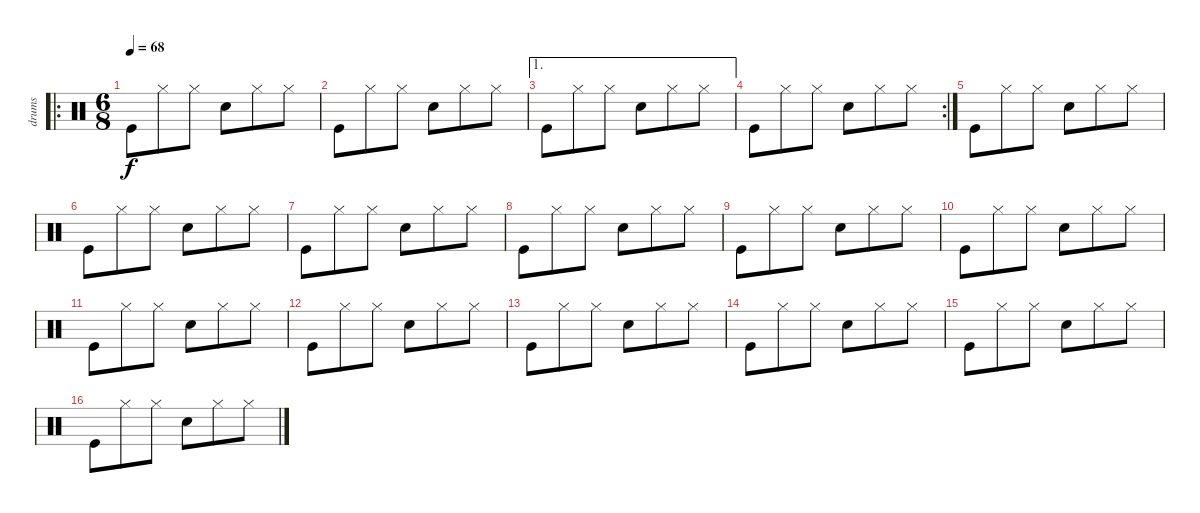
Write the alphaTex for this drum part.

\track ("drums" "drums") {instrument percussion}
\staff {score}
\articulation defaults
\ro
\ts (6 8)
\tempo 68
\clef neutral
\ks c "Kick (hit)".8{dy f} "Hi-Hat (closed)".8 "Hi-Hat (closed)".8 "Snare (hit) 2".8 "Hi-Hat (closed)".8 "Hi-Hat (closed)".8
|
"Kick (hit)".8 "Hi-Hat (closed)".8 "Hi-Hat (closed)".8 "Snare (hit) 2".8 "Hi-Hat (closed)".8 "Hi-Hat (closed)".8 |
\ae 1 "Kick (hit)".8 "Hi-Hat (closed)".8 "Hi-Hat (closed)".8 "Snare (hit) 2".8 "Hi-Hat (closed)".8 "Hi-Hat (closed)".8
|
\rc 2 "Kick (hit)".8 "Hi-Hat (closed)".8 "Hi-Hat (closed)".8 "Snare (hit) 2".8 "Hi-Hat (closed)".8 "Hi-Hat (closed)".8
|
"Kick (hit)".8 "Hi-Hat (closed)".8 "Hi-Hat (closed)".8 "Snare (hit) 2".8 "Hi-Hat (closed)".8 "Hi-Hat (closed)".8 |
"Kick (hit)".8 "Hi-Hat (closed)".8 "Hi-Hat (closed)".8 "Snare (hit) 2".8 "Hi-Hat (closed)".8 "Hi-Hat (closed)".8 |
"Kick (hit)".8 "Hi-Hat (closed)".8 "Hi-Hat (closed)".8 "Snare (hit) 2".8 "Hi-Hat (closed)".8 "Hi-Hat (closed)".8 |
"Kick (hit)".8 "Hi-Hat (closed)".8 "Hi-Hat (closed)".8 "Snare (hit) 2".8 "Hi-Hat (closed)".8 "Hi-Hat (closed)".8 |
"Kick (hit)".8 "Hi-Hat (closed)".8 "Hi-Hat (closed)".8 "Snare (hit) 2".8 "Hi-Hat (closed)".8 "Hi-Hat (closed)".8 |
"Kick (hit)".8 "Hi-Hat (closed)".8 "Hi-Hat (closed)".8 "Snare (hit) 2".8 "Hi-Hat (closed)".8 "Hi-Hat (closed)".8 |
"Kick (hit)".8 "Hi-Hat (closed)".8 "Hi-Hat (closed)".8 "Snare (hit) 2".8 "Hi-Hat (closed)".8 "Hi-Hat (closed)".8 |
"Kick (hit)".8 "Hi-Hat (closed)".8 "Hi-Hat (closed)".8 "Snare (hit) 2".8 "Hi-Hat (closed)".8 "Hi-Hat (closed)".8 |
"Kick (hit)".8 "Hi-Hat (closed)".8 "Hi-Hat (closed)".8 "Snare (hit) 2".8 "Hi-Hat (closed)".8 "Hi-Hat (closed)".8 |
"Kick (hit)".8 "Hi-Hat (closed)".8 "Hi-Hat (closed)".8 "Snare (hit) 2".8 "Hi-Hat (closed)".8 "Hi-Hat (closed)".8 |
"Kick (hit)".8 "Hi-Hat (closed)".8 "Hi-Hat (closed)".8 "Snare (hit) 2".8 "Hi-Hat (closed)".8 "Hi-Hat (closed)".8 |
"Kick (hit)".8 "Hi-Hat (closed)".8 "Hi-Hat (closed)".8 "Snare (hit) 2".8 "Hi-Hat (closed)".8 "Hi-Hat (closed)".8
